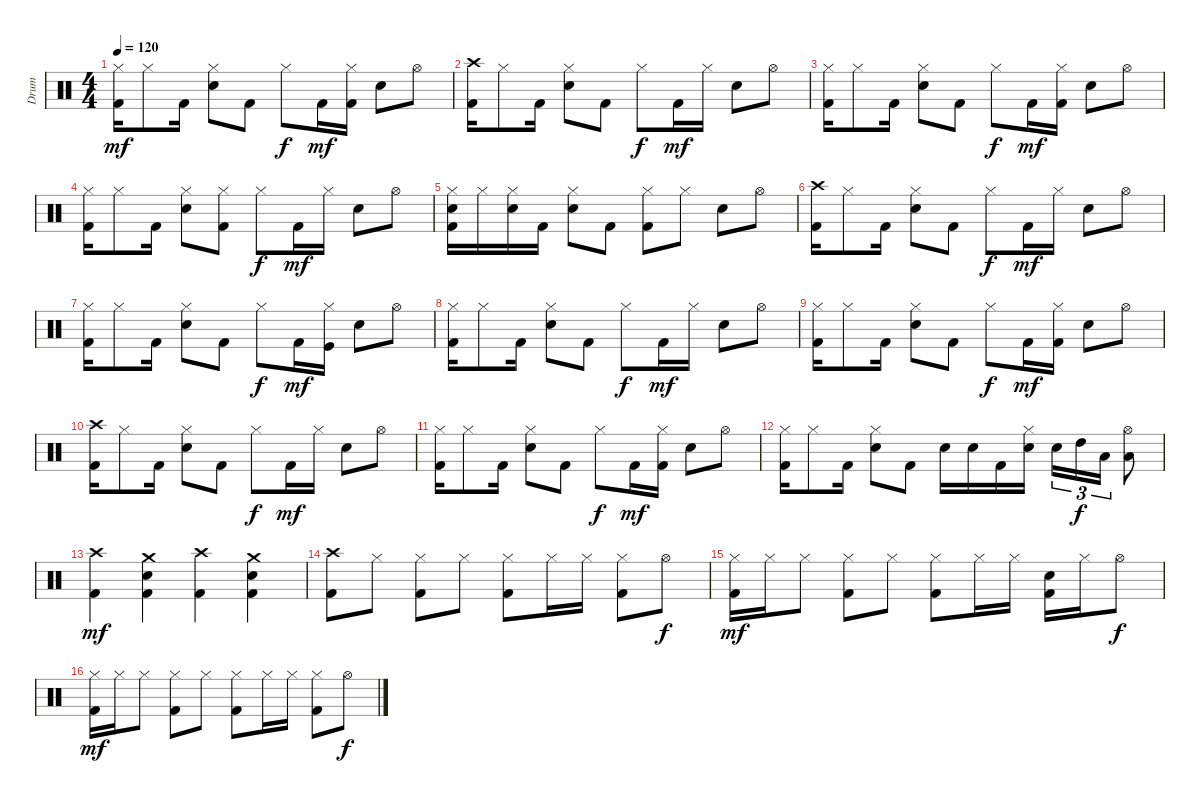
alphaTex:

\track ("Drum" "Drum") {instrument percussion}
\staff {score}
\articulation defaults
\ts (4 4)
\tempo 120
\clef neutral
\ks c
("Hi-Hat (closed)" "Kick (hit) 2").16{dy mf} "Hi-Hat (closed)".8 "Kick (hit) 2".16 ("Hi-Hat (closed)" "Snare (hit) 2").8 "Kick (hit) 2".8 "Hi-Hat (closed)".8{dy f} "Kick (hit) 2".16{dy mf} ("Hi-Hat (closed)" "Kick (hit) 2").16 "Snare (hit) 2".8 "Hi-Hat (open)".8 |
("Crash high (hit)" "Kick (hit) 2").16 "Hi-Hat (closed)".8 "Kick (hit) 2".16 ("Hi-Hat (closed)" "Snare (hit) 2").8 "Kick (hit) 2".8 "Hi-Hat (closed)".8{dy f} "Kick (hit) 2".16{dy mf} "Hi-Hat (closed)".16 "Snare (hit) 2".8 "Hi-Hat (open)".8 |
("Hi-Hat (closed)" "Kick (hit) 2").16 "Hi-Hat (closed)".8 "Kick (hit) 2".16 ("Hi-Hat (closed)" "Snare (hit) 2").8 "Kick (hit) 2".8 "Hi-Hat (closed)".8{dy f} "Kick (hit) 2".16{dy mf} ("Hi-Hat (closed)" "Kick (hit) 2").16 "Snare (hit) 2".8 "Hi-Hat (open)".8 |
("Hi-Hat (closed)" "Kick (hit) 2").16 "Hi-Hat (closed)".8 "Kick (hit) 2".16 ("Hi-Hat (closed)" "Snare (hit) 2").8 ("Hi-Hat (closed)" "Kick (hit) 2").8 "Hi-Hat (closed)".8{dy f} "Kick (hit) 2".16{dy mf} "Hi-Hat (closed)".16 "Snare (hit) 2".8 "Hi-Hat (open)".8 |
("Hi-Hat (closed)" "Snare (hit) 2" "Kick (hit) 2").16 "Hi-Hat (closed)".16 ("Hi-Hat (closed)" "Snare (hit) 2").16 "Kick (hit) 2".16 ("Hi-Hat (closed)" "Snare (hit) 2").8 "Kick (hit) 2".8 ("Hi-Hat (closed)" "Kick (hit) 2").8 "Hi-Hat (closed)".8 "Snare (hit) 2".8 "Hi-Hat (open)".8 |
("Crash high (hit)" "Kick (hit) 2").16 "Hi-Hat (closed)".8 "Kick (hit) 2".16 ("Hi-Hat (closed)" "Snare (hit) 2").8 "Kick (hit) 2".8 "Hi-Hat (closed)".8{dy f} "Kick (hit) 2".16{dy mf} "Hi-Hat (closed)".16 "Snare (hit) 2".8 "Hi-Hat (open)".8 |
("Hi-Hat (closed)" "Kick (hit) 2").16 "Hi-Hat (closed)".8 "Kick (hit) 2".16 ("Hi-Hat (closed)" "Snare (hit) 2").8 "Kick (hit) 2".8 "Hi-Hat (closed)".8{dy f} "Kick (hit) 2".16{dy mf} ("Hi-Hat (closed)" "Kick (hit)").16 "Snare (hit) 2".8 "Hi-Hat (open)".8 |
("Hi-Hat (closed)" "Kick (hit) 2").16 "Hi-Hat (closed)".8 "Kick (hit) 2".16 ("Hi-Hat (closed)" "Snare (hit) 2").8 "Kick (hit) 2".8 "Hi-Hat (closed)".8{dy f} "Kick (hit) 2".16{dy mf} "Hi-Hat (closed)".16 "Snare (hit) 2".8 "Hi-Hat (open)".8 |
("Hi-Hat (closed)" "Kick (hit) 2").16 "Hi-Hat (closed)".8 "Kick (hit) 2".16 ("Hi-Hat (closed)" "Snare (hit) 2").8 "Kick (hit) 2".8 "Hi-Hat (closed)".8{dy f} "Kick (hit) 2".16{dy mf} ("Hi-Hat (closed)" "Kick (hit) 2").16 "Snare (hit) 2".8 "Hi-Hat (open)".8 |
("Crash high (hit)" "Kick (hit) 2").16 "Hi-Hat (closed)".8 "Kick (hit) 2".16 ("Hi-Hat (closed)" "Snare (hit) 2").8 "Kick (hit) 2".8 "Hi-Hat (closed)".8{dy f} "Kick (hit) 2".16{dy mf} "Hi-Hat (closed)".16 "Snare (hit) 2".8 "Hi-Hat (open)".8 |
("Hi-Hat (closed)" "Kick (hit) 2").16 "Hi-Hat (closed)".8 "Kick (hit) 2".16 ("Hi-Hat (closed)" "Snare (hit) 2").8 "Kick (hit) 2".8 "Hi-Hat (closed)".8{dy f} "Kick (hit) 2".16{dy mf} ("Hi-Hat (closed)" "Kick (hit) 2").16 "Snare (hit) 2".8 "Hi-Hat (open)".8 |
("Hi-Hat (closed)" "Kick (hit) 2").16 "Hi-Hat (closed)".8 "Kick (hit) 2".16 ("Hi-Hat (closed)" "Snare (hit) 2").8 "Kick (hit) 2".8 "Snare (hit) 2".16 "Snare (hit) 2".16 "Kick (hit) 2".16 ("Hi-Hat (closed)" "Snare (hit) 2").16 "Snare (hit) 2".16{tu (3 2)} "High Tom (hit)".16{tu (3 2) dy f} "Low Tom (hit)".16{tu (3 2)} ("Hi-Hat (open)" "Low Floor Tom (hit)").8 |
("Crash high (hit)" "Kick (hit) 2").4{dy mf} ("Crash medium (hit)" "Snare (hit) 2" "Kick (hit) 2").4 ("Crash high (hit)" "Kick (hit) 2").4 ("Crash medium (hit)" "Snare (hit) 2" "Kick (hit) 2").4 |
("Crash high (hit)" "Kick (hit) 2").8 "Hi-Hat (closed)".8 ("Hi-Hat (closed)" "Kick (hit) 2").8 "Hi-Hat (closed)".8 ("Hi-Hat (closed)" "Kick (hit) 2").8 "Hi-Hat (closed)".16 "Hi-Hat (closed)".16 ("Hi-Hat (closed)" "Kick (hit) 2").8 "Hi-Hat (open)".8{dy f} |
("Hi-Hat (closed)" "Kick (hit) 2").16{dy mf} "Hi-Hat (closed)".16 "Hi-Hat (closed)".8 ("Hi-Hat (closed)" "Kick (hit) 2").8 "Hi-Hat (closed)".8 ("Hi-Hat (closed)" "Kick (hit) 2").8 "Hi-Hat (closed)".16 "Hi-Hat (closed)".16 ("Snare (hit) 2" "Kick (hit) 2").16 "Hi-Hat (closed)".16 "Hi-Hat (open)".8{dy f} |
("Hi-Hat (closed)" "Kick (hit) 2").16{dy mf} "Hi-Hat (closed)".16 "Hi-Hat (closed)".8 ("Hi-Hat (closed)" "Kick (hit) 2").8 "Hi-Hat (closed)".8 ("Hi-Hat (closed)" "Kick (hit) 2").8 "Hi-Hat (closed)".16 "Hi-Hat (closed)".16 ("Hi-Hat (closed)" "Kick (hit) 2").8 "Hi-Hat (open)".8{dy f}
